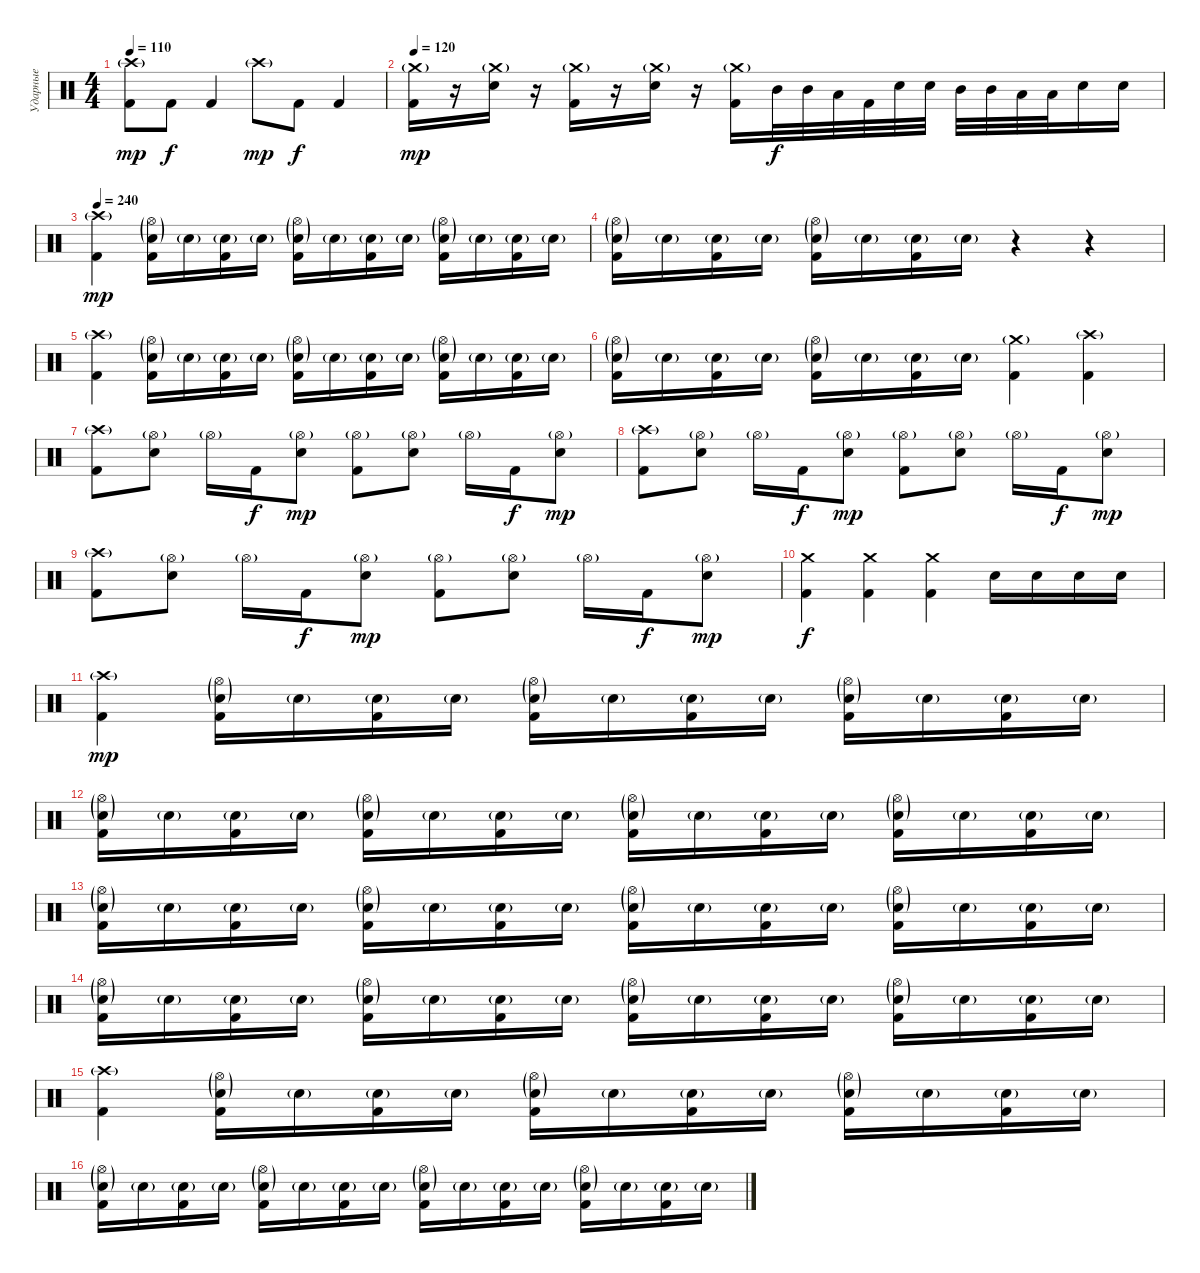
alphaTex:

\track ("Ударные" "Ударные") {instrument percussion}
\staff {score}
\articulation defaults
\ts (4 4)
\tempo 110
\clef neutral
\ks c
("Crash high (hit)"{g} "Kick (hit) 2").8{dy mp} "Kick (hit) 2".8{dy f} "Kick (hit) 2".4 "Crash high (hit)"{g}.8{dy mp} "Kick (hit) 2".8{dy f} "Kick (hit) 2".4 |
\tempo 120
("Crash medium (hit)"{g} "Kick (hit) 2").16{dy mp} r.16 ("Crash medium (hit)"{g} "Electric Snare (hit)").16 r.16 ("Crash medium (hit)"{g} "Kick (hit) 2").16 r.16 ("Crash medium (hit)"{g} "Electric Snare (hit)").16 r.16 ("Crash medium (hit)"{g} "Kick (hit) 2").16 "Mid Tom (hit)".32{dy f} "Mid Tom (hit)".32 "Low Tom (hit)".32 "Kick (hit) 2".32 "Electric Snare (hit)".32 "Electric Snare (hit)".32 "Mid Tom (hit)".32 "Mid Tom (hit)".32 "Low Tom (hit)".32 "Low Tom (hit)".32 "Electric Snare (hit)".16 "Electric Snare (hit)".16 |
\tempo 240
("Crash high (hit)"{g} "Kick (hit) 2").4{dy mp} ("Hi-Hat (open)"{g} "Electric Snare (hit)"{g} "Kick (hit) 2").16 "Electric Snare (hit)"{g}.16 ("Electric Snare (hit)"{g} "Kick (hit) 2").16 "Electric Snare (hit)"{g}.16 ("Hi-Hat (open)"{g} "Electric Snare (hit)"{g} "Kick (hit) 2").16 "Electric Snare (hit)"{g}.16 ("Electric Snare (hit)"{g} "Kick (hit) 2").16 "Electric Snare (hit)"{g}.16 ("Hi-Hat (open)"{g} "Electric Snare (hit)"{g} "Kick (hit) 2").16 "Electric Snare (hit)"{g}.16 ("Electric Snare (hit)"{g} "Kick (hit) 2").16 "Electric Snare (hit)"{g}.16 |
("Hi-Hat (open)"{g} "Electric Snare (hit)"{g} "Kick (hit) 2").16 "Electric Snare (hit)"{g}.16 ("Electric Snare (hit)"{g} "Kick (hit) 2").16 "Electric Snare (hit)"{g}.16 ("Hi-Hat (open)"{g} "Electric Snare (hit)"{g} "Kick (hit) 2").16 "Electric Snare (hit)"{g}.16 ("Electric Snare (hit)"{g} "Kick (hit) 2").16 "Electric Snare (hit)"{g}.16 r.4 r.4 |
("Crash high (hit)"{g} "Kick (hit) 2").4 ("Hi-Hat (open)"{g} "Electric Snare (hit)"{g} "Kick (hit) 2").16 "Electric Snare (hit)"{g}.16 ("Electric Snare (hit)"{g} "Kick (hit) 2").16 "Electric Snare (hit)"{g}.16 ("Hi-Hat (open)"{g} "Electric Snare (hit)"{g} "Kick (hit) 2").16 "Electric Snare (hit)"{g}.16 ("Electric Snare (hit)"{g} "Kick (hit) 2").16 "Electric Snare (hit)"{g}.16 ("Hi-Hat (open)"{g} "Electric Snare (hit)"{g} "Kick (hit) 2").16 "Electric Snare (hit)"{g}.16 ("Electric Snare (hit)"{g} "Kick (hit) 2").16 "Electric Snare (hit)"{g}.16 |
("Hi-Hat (open)"{g} "Electric Snare (hit)"{g} "Kick (hit) 2").16 "Electric Snare (hit)"{g}.16 ("Electric Snare (hit)"{g} "Kick (hit) 2").16 "Electric Snare (hit)"{g}.16 ("Hi-Hat (open)"{g} "Electric Snare (hit)"{g} "Kick (hit) 2").16 "Electric Snare (hit)"{g}.16 ("Electric Snare (hit)"{g} "Kick (hit) 2").16 "Electric Snare (hit)"{g}.16 ("Crash medium (hit)"{g} "Kick (hit) 2").4 ("Crash high (hit)"{g} "Kick (hit) 2").4 |
("Crash high (hit)"{g} "Kick (hit) 2").8 ("Hi-Hat (open)"{g} "Electric Snare (hit)").8 "Hi-Hat (open)"{g}.16 "Kick (hit) 2".16{dy f} ("Hi-Hat (open)"{g} "Electric Snare (hit)").8{dy mp} ("Hi-Hat (open)"{g} "Kick (hit) 2").8 ("Hi-Hat (open)"{g} "Electric Snare (hit)").8 "Hi-Hat (open)"{g}.16 "Kick (hit) 2".16{dy f} ("Hi-Hat (open)"{g} "Electric Snare (hit)").8{dy mp} |
("Crash high (hit)"{g} "Kick (hit) 2").8 ("Hi-Hat (open)"{g} "Electric Snare (hit)").8 "Hi-Hat (open)"{g}.16 "Kick (hit) 2".16{dy f} ("Hi-Hat (open)"{g} "Electric Snare (hit)").8{dy mp} ("Hi-Hat (open)"{g} "Kick (hit) 2").8 ("Hi-Hat (open)"{g} "Electric Snare (hit)").8 "Hi-Hat (open)"{g}.16 "Kick (hit) 2".16{dy f} ("Hi-Hat (open)"{g} "Electric Snare (hit)").8{dy mp} |
("Crash high (hit)"{g} "Kick (hit) 2").8 ("Hi-Hat (open)"{g} "Electric Snare (hit)").8 "Hi-Hat (open)"{g}.16 "Kick (hit) 2".16{dy f} ("Hi-Hat (open)"{g} "Electric Snare (hit)").8{dy mp} ("Hi-Hat (open)"{g} "Kick (hit) 2").8 ("Hi-Hat (open)"{g} "Electric Snare (hit)").8 "Hi-Hat (open)"{g}.16 "Kick (hit) 2".16{dy f} ("Hi-Hat (open)"{g} "Electric Snare (hit)").8{dy mp} |
("Crash medium (hit)" "Kick (hit) 2").4{dy f} ("Crash medium (hit)" "Kick (hit) 2").4 ("Crash medium (hit)" "Kick (hit) 2").4 "Electric Snare (hit)".16 "Electric Snare (hit)".16 "Electric Snare (hit)".16 "Electric Snare (hit)".16 |
("Crash high (hit)"{g} "Kick (hit) 2").4{dy mp} ("Hi-Hat (open)"{g} "Electric Snare (hit)"{g} "Kick (hit) 2").16 "Electric Snare (hit)"{g}.16 ("Electric Snare (hit)"{g} "Kick (hit) 2").16 "Electric Snare (hit)"{g}.16 ("Hi-Hat (open)"{g} "Electric Snare (hit)"{g} "Kick (hit) 2").16 "Electric Snare (hit)"{g}.16 ("Electric Snare (hit)"{g} "Kick (hit) 2").16 "Electric Snare (hit)"{g}.16 ("Hi-Hat (open)"{g} "Electric Snare (hit)"{g} "Kick (hit) 2").16 "Electric Snare (hit)"{g}.16 ("Electric Snare (hit)"{g} "Kick (hit) 2").16 "Electric Snare (hit)"{g}.16 |
("Hi-Hat (open)"{g} "Electric Snare (hit)"{g} "Kick (hit) 2").16 "Electric Snare (hit)"{g}.16 ("Electric Snare (hit)"{g} "Kick (hit) 2").16 "Electric Snare (hit)"{g}.16 ("Hi-Hat (open)"{g} "Electric Snare (hit)"{g} "Kick (hit) 2").16 "Electric Snare (hit)"{g}.16 ("Electric Snare (hit)"{g} "Kick (hit) 2").16 "Electric Snare (hit)"{g}.16 ("Hi-Hat (open)"{g} "Electric Snare (hit)"{g} "Kick (hit) 2").16 "Electric Snare (hit)"{g}.16 ("Electric Snare (hit)"{g} "Kick (hit) 2").16 "Electric Snare (hit)"{g}.16 ("Hi-Hat (open)"{g} "Electric Snare (hit)"{g} "Kick (hit) 2").16 "Electric Snare (hit)"{g}.16 ("Electric Snare (hit)"{g} "Kick (hit) 2").16 "Electric Snare (hit)"{g}.16 |
("Hi-Hat (open)"{g} "Electric Snare (hit)"{g} "Kick (hit) 2").16 "Electric Snare (hit)"{g}.16 ("Electric Snare (hit)"{g} "Kick (hit) 2").16 "Electric Snare (hit)"{g}.16 ("Hi-Hat (open)"{g} "Electric Snare (hit)"{g} "Kick (hit) 2").16 "Electric Snare (hit)"{g}.16 ("Electric Snare (hit)"{g} "Kick (hit) 2").16 "Electric Snare (hit)"{g}.16 ("Hi-Hat (open)"{g} "Electric Snare (hit)"{g} "Kick (hit) 2").16 "Electric Snare (hit)"{g}.16 ("Electric Snare (hit)"{g} "Kick (hit) 2").16 "Electric Snare (hit)"{g}.16 ("Hi-Hat (open)"{g} "Electric Snare (hit)"{g} "Kick (hit) 2").16 "Electric Snare (hit)"{g}.16 ("Electric Snare (hit)"{g} "Kick (hit) 2").16 "Electric Snare (hit)"{g}.16 |
("Hi-Hat (open)"{g} "Electric Snare (hit)"{g} "Kick (hit) 2").16 "Electric Snare (hit)"{g}.16 ("Electric Snare (hit)"{g} "Kick (hit) 2").16 "Electric Snare (hit)"{g}.16 ("Hi-Hat (open)"{g} "Electric Snare (hit)"{g} "Kick (hit) 2").16 "Electric Snare (hit)"{g}.16 ("Electric Snare (hit)"{g} "Kick (hit) 2").16 "Electric Snare (hit)"{g}.16 ("Hi-Hat (open)"{g} "Electric Snare (hit)"{g} "Kick (hit) 2").16 "Electric Snare (hit)"{g}.16 ("Electric Snare (hit)"{g} "Kick (hit) 2").16 "Electric Snare (hit)"{g}.16 ("Hi-Hat (open)"{g} "Electric Snare (hit)"{g} "Kick (hit) 2").16 "Electric Snare (hit)"{g}.16 ("Electric Snare (hit)"{g} "Kick (hit) 2").16 "Electric Snare (hit)"{g}.16 |
("Crash high (hit)"{g} "Kick (hit) 2").4 ("Hi-Hat (open)"{g} "Electric Snare (hit)"{g} "Kick (hit) 2").16 "Electric Snare (hit)"{g}.16 ("Electric Snare (hit)"{g} "Kick (hit) 2").16 "Electric Snare (hit)"{g}.16 ("Hi-Hat (open)"{g} "Electric Snare (hit)"{g} "Kick (hit) 2").16 "Electric Snare (hit)"{g}.16 ("Electric Snare (hit)"{g} "Kick (hit) 2").16 "Electric Snare (hit)"{g}.16 ("Hi-Hat (open)"{g} "Electric Snare (hit)"{g} "Kick (hit) 2").16 "Electric Snare (hit)"{g}.16 ("Electric Snare (hit)"{g} "Kick (hit) 2").16 "Electric Snare (hit)"{g}.16 |
("Hi-Hat (open)"{g} "Electric Snare (hit)"{g} "Kick (hit) 2").16 "Electric Snare (hit)"{g}.16 ("Electric Snare (hit)"{g} "Kick (hit) 2").16 "Electric Snare (hit)"{g}.16 ("Hi-Hat (open)"{g} "Electric Snare (hit)"{g} "Kick (hit) 2").16 "Electric Snare (hit)"{g}.16 ("Electric Snare (hit)"{g} "Kick (hit) 2").16 "Electric Snare (hit)"{g}.16 ("Hi-Hat (open)"{g} "Electric Snare (hit)"{g} "Kick (hit) 2").16 "Electric Snare (hit)"{g}.16 ("Electric Snare (hit)"{g} "Kick (hit) 2").16 "Electric Snare (hit)"{g}.16 ("Hi-Hat (open)"{g} "Electric Snare (hit)"{g} "Kick (hit) 2").16 "Electric Snare (hit)"{g}.16 ("Electric Snare (hit)"{g} "Kick (hit) 2").16 "Electric Snare (hit)"{g}.16
